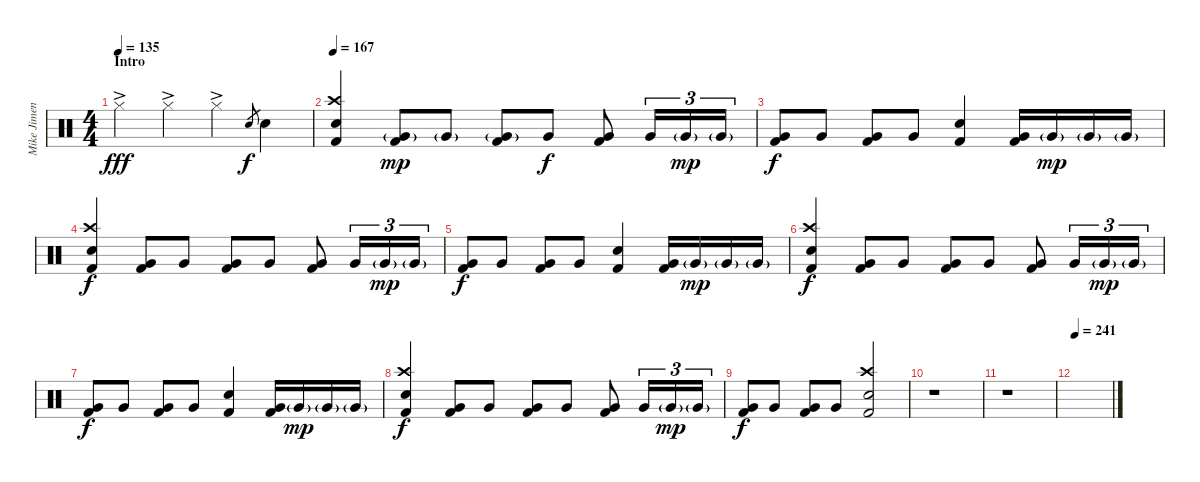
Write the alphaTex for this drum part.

\track ("Mike Jimenez" "Mike Jimen") {instrument percussion}
\staff {score}
\articulation defaults
\ts (4 4)
\section ("" "Intro")
\tempo 135
\clef neutral
\ks c "Hi-Hat (closed)"{ac}.4{dy fff} "Hi-Hat (closed)"{ac}.4 "Hi-Hat (closed)"{ac}.4 "Electric Snare (hit)".8{gr dy f} "Electric Snare (hit)".4
|
\tempo 167
("Crash high (hit)" "Electric Snare (hit)" "Kick (hit) 2").4 ("Very Low Tom (hit)"{g} "Kick (hit) 2").8{dy mp} "Very Low Tom (hit)"{g}.8 ("Very Low Tom (hit)"{g} "Kick (hit) 2").8 "Very Low Tom (hit)".8{dy f} ("Very Low Tom (hit)" "Kick (hit) 2").8 "Very Low Tom (hit)".16{tu (3 2)} "Very Low Tom (hit)"{g}.16{tu (3 2) dy mp} "Very Low Tom (hit)"{g}.16{tu (3 2)} |
("Very Low Tom (hit)" "Kick (hit) 2").8{dy f} "Very Low Tom (hit)".8 ("Very Low Tom (hit)" "Kick (hit) 2").8 "Very Low Tom (hit)".8 ("Electric Snare (hit)" "Kick (hit) 2").4 ("Very Low Tom (hit)" "Kick (hit) 2").16 "Very Low Tom (hit)"{g}.16{dy mp} "Very Low Tom (hit)"{g}.16 "Very Low Tom (hit)"{g}.16 |
("Crash high (hit)" "Electric Snare (hit)" "Kick (hit) 2").4{dy f} ("Very Low Tom (hit)" "Kick (hit) 2").8 "Very Low Tom (hit)".8 ("Very Low Tom (hit)" "Kick (hit) 2").8 "Very Low Tom (hit)".8 ("Very Low Tom (hit)" "Kick (hit) 2").8 "Very Low Tom (hit)".16{tu (3 2)} "Very Low Tom (hit)"{g}.16{tu (3 2) dy mp} "Very Low Tom (hit)"{g}.16{tu (3 2)} |
("Very Low Tom (hit)" "Kick (hit) 2").8{dy f} "Very Low Tom (hit)".8 ("Very Low Tom (hit)" "Kick (hit) 2").8 "Very Low Tom (hit)".8 ("Electric Snare (hit)" "Kick (hit) 2").4 ("Very Low Tom (hit)" "Kick (hit) 2").16 "Very Low Tom (hit)"{g}.16{dy mp} "Very Low Tom (hit)"{g}.16 "Very Low Tom (hit)"{g}.16 |
("Crash high (hit)" "Electric Snare (hit)" "Kick (hit) 2").4{dy f} ("Very Low Tom (hit)" "Kick (hit) 2").8 "Very Low Tom (hit)".8 ("Very Low Tom (hit)" "Kick (hit) 2").8 "Very Low Tom (hit)".8 ("Very Low Tom (hit)" "Kick (hit) 2").8 "Very Low Tom (hit)".16{tu (3 2)} "Very Low Tom (hit)"{g}.16{tu (3 2) dy mp} "Very Low Tom (hit)"{g}.16{tu (3 2)} |
("Very Low Tom (hit)" "Kick (hit) 2").8{dy f} "Very Low Tom (hit)".8 ("Very Low Tom (hit)" "Kick (hit) 2").8 "Very Low Tom (hit)".8 ("Electric Snare (hit)" "Kick (hit) 2").4 ("Very Low Tom (hit)" "Kick (hit) 2").16 "Very Low Tom (hit)"{g}.16{dy mp} "Very Low Tom (hit)"{g}.16 "Very Low Tom (hit)"{g}.16 |
("Crash high (hit)" "Electric Snare (hit)" "Kick (hit) 2").4{dy f} ("Very Low Tom (hit)" "Kick (hit) 2").8 "Very Low Tom (hit)".8 ("Very Low Tom (hit)" "Kick (hit) 2").8 "Very Low Tom (hit)".8 ("Very Low Tom (hit)" "Kick (hit) 2").8 "Very Low Tom (hit)".16{tu (3 2)} "Very Low Tom (hit)"{g}.16{tu (3 2) dy mp} "Very Low Tom (hit)"{g}.16{tu (3 2)} |
("Very Low Tom (hit)" "Kick (hit) 2").8{dy f} "Very Low Tom (hit)".8 ("Very Low Tom (hit)" "Kick (hit) 2").8 "Very Low Tom (hit)".8 ("Crash high (hit)" "Electric Snare (hit)" "Kick (hit) 2").2 |
r.1 |
r.1 |
\tempo 241
